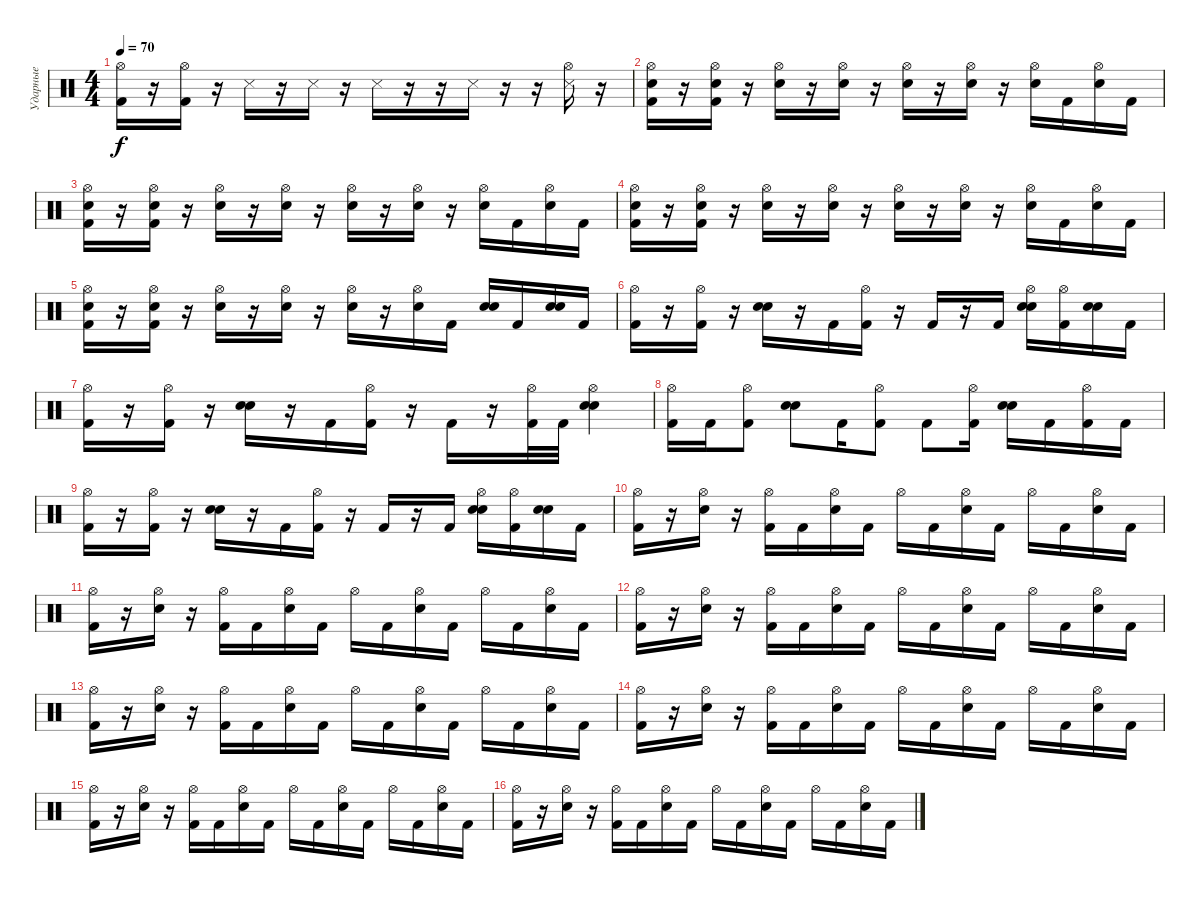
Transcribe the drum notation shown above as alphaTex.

\track ("Ударные" "Ударные") {instrument percussion}
\staff {score}
\articulation defaults
\ts (4 4)
\tempo 70
\clef neutral
\ks c
("Hi-Hat (open)" "Kick (hit) 2").16{dy f} r.16 ("Hi-Hat (open)" "Kick (hit) 2").16 r.16 "Snare (side stick) 3".16 r.16 "Snare (side stick) 3".16 r.16 "Snare (side stick) 3".16 r.16 r.16 "Snare (side stick) 3".16 r.16 r.16 ("Snare (side stick) 3" "Hi-Hat (open)").16 r.16 |
("Hi-Hat (open)" "Electric Snare (hit)" "Kick (hit) 2").16 r.16 ("Hi-Hat (open)" "Electric Snare (hit)" "Kick (hit) 2").16 r.16 ("Hi-Hat (open)" "Electric Snare (hit)").16 r.16 ("Hi-Hat (open)" "Electric Snare (hit)").16 r.16 ("Hi-Hat (open)" "Electric Snare (hit)").16 r.16 ("Hi-Hat (open)" "Electric Snare (hit)").16 r.16 ("Hi-Hat (open)" "Electric Snare (hit)").16 "Kick (hit) 2".16 ("Hi-Hat (open)" "Electric Snare (hit)").16 "Kick (hit) 2".16 |
("Hi-Hat (open)" "Electric Snare (hit)" "Kick (hit) 2").16 r.16 ("Hi-Hat (open)" "Electric Snare (hit)" "Kick (hit) 2").16 r.16 ("Hi-Hat (open)" "Electric Snare (hit)").16 r.16 ("Hi-Hat (open)" "Electric Snare (hit)").16 r.16 ("Hi-Hat (open)" "Electric Snare (hit)").16 r.16 ("Hi-Hat (open)" "Electric Snare (hit)").16 r.16 ("Hi-Hat (open)" "Electric Snare (hit)").16 "Kick (hit) 2".16 ("Hi-Hat (open)" "Electric Snare (hit)").16 "Kick (hit) 2".16 |
("Hi-Hat (open)" "Electric Snare (hit)" "Kick (hit) 2").16 r.16 ("Hi-Hat (open)" "Electric Snare (hit)" "Kick (hit) 2").16 r.16 ("Hi-Hat (open)" "Electric Snare (hit)").16 r.16 ("Hi-Hat (open)" "Electric Snare (hit)").16 r.16 ("Hi-Hat (open)" "Electric Snare (hit)").16 r.16 ("Hi-Hat (open)" "Electric Snare (hit)").16 r.16 ("Hi-Hat (open)" "Electric Snare (hit)").16 "Kick (hit) 2".16 ("Hi-Hat (open)" "Electric Snare (hit)").16 "Kick (hit) 2".16 |
("Hi-Hat (open)" "Electric Snare (hit)" "Kick (hit) 2").16 r.16 ("Hi-Hat (open)" "Electric Snare (hit)" "Kick (hit) 2").16 r.16 ("Hi-Hat (open)" "Electric Snare (hit)").16 r.16 ("Hi-Hat (open)" "Electric Snare (hit)").16 r.16 ("Hi-Hat (open)" "Electric Snare (hit)").16 r.16 ("Hi-Hat (open)" "Electric Snare (hit)").16 "Kick (hit) 2".16 ("Snare (hit) 2" "Electric Snare (hit)").16 "Kick (hit) 2".16 ("Snare (hit) 2" "Electric Snare (hit)").16 "Kick (hit) 2".16 |
("Hi-Hat (open)" "Kick (hit) 2").16 r.16 ("Hi-Hat (open)" "Kick (hit) 2").16 r.16 ("Snare (hit) 2" "Electric Snare (hit)").16 r.16 "Kick (hit) 2".16 ("Kick (hit) 2" "Hi-Hat (open)").16 r.16 "Kick (hit) 2".16 r.16 "Kick (hit) 2".16 ("Snare (hit) 2" "Electric Snare (hit)" "Hi-Hat (open)").16 ("Kick (hit) 2" "Hi-Hat (open)").16 ("Snare (hit) 2" "Electric Snare (hit)").16 "Kick (hit) 2".16 |
("Hi-Hat (open)" "Kick (hit) 2").16 r.16 ("Hi-Hat (open)" "Kick (hit) 2").16 r.16 ("Snare (hit) 2" "Electric Snare (hit)").16 r.16 "Kick (hit) 2".16 ("Kick (hit) 2" "Hi-Hat (open)").16 r.16 "Kick (hit) 2".16 r.16 ("Kick (hit) 2" "Hi-Hat (open)").32 "Kick (hit) 2".32 ("Electric Snare (hit)" "Snare (hit) 2" "Hi-Hat (open)").4 |
("Hi-Hat (open)" "Kick (hit) 2").16 "Kick (hit) 2".16 ("Hi-Hat (open)" "Kick (hit) 2").8 ("Snare (hit) 2" "Electric Snare (hit)").8 "Kick (hit) 2".16 ("Hi-Hat (open)" "Kick (hit) 2").8 "Kick (hit) 2".8 ("Hi-Hat (open)" "Kick (hit) 2").16 ("Snare (hit) 2" "Electric Snare (hit)").16 "Kick (hit) 2".16 ("Hi-Hat (open)" "Kick (hit) 2").16 "Kick (hit) 2".16 |
("Hi-Hat (open)" "Kick (hit) 2").16 r.16 ("Hi-Hat (open)" "Kick (hit) 2").16 r.16 ("Snare (hit) 2" "Electric Snare (hit)").16 r.16 "Kick (hit) 2".16 ("Kick (hit) 2" "Hi-Hat (open)").16 r.16 "Kick (hit) 2".16 r.16 "Kick (hit) 2".16 ("Snare (hit) 2" "Electric Snare (hit)" "Hi-Hat (open)").16 ("Kick (hit) 2" "Hi-Hat (open)").16 ("Snare (hit) 2" "Electric Snare (hit)").16 "Kick (hit) 2".16 |
("Hi-Hat (open)" "Kick (hit) 2").16 r.16 ("Hi-Hat (open)" "Electric Snare (hit)").16 r.16 ("Hi-Hat (open)" "Kick (hit) 2").16 "Kick (hit) 2".16 ("Hi-Hat (open)" "Electric Snare (hit)").16 "Kick (hit) 2".16 "Hi-Hat (open)".16 "Kick (hit) 2".16 ("Hi-Hat (open)" "Electric Snare (hit)").16 "Kick (hit) 2".16 "Hi-Hat (open)".16 "Kick (hit) 2".16 ("Hi-Hat (open)" "Electric Snare (hit)").16 "Kick (hit) 2".16 |
("Hi-Hat (open)" "Kick (hit) 2").16 r.16 ("Hi-Hat (open)" "Electric Snare (hit)").16 r.16 ("Hi-Hat (open)" "Kick (hit) 2").16 "Kick (hit) 2".16 ("Hi-Hat (open)" "Electric Snare (hit)").16 "Kick (hit) 2".16 "Hi-Hat (open)".16 "Kick (hit) 2".16 ("Hi-Hat (open)" "Electric Snare (hit)").16 "Kick (hit) 2".16 "Hi-Hat (open)".16 "Kick (hit) 2".16 ("Hi-Hat (open)" "Electric Snare (hit)").16 "Kick (hit) 2".16 |
("Hi-Hat (open)" "Kick (hit) 2").16 r.16 ("Hi-Hat (open)" "Electric Snare (hit)").16 r.16 ("Hi-Hat (open)" "Kick (hit) 2").16 "Kick (hit) 2".16 ("Hi-Hat (open)" "Electric Snare (hit)").16 "Kick (hit) 2".16 "Hi-Hat (open)".16 "Kick (hit) 2".16 ("Hi-Hat (open)" "Electric Snare (hit)").16 "Kick (hit) 2".16 "Hi-Hat (open)".16 "Kick (hit) 2".16 ("Hi-Hat (open)" "Electric Snare (hit)").16 "Kick (hit) 2".16 |
("Hi-Hat (open)" "Kick (hit) 2").16 r.16 ("Hi-Hat (open)" "Electric Snare (hit)").16 r.16 ("Hi-Hat (open)" "Kick (hit) 2").16 "Kick (hit) 2".16 ("Hi-Hat (open)" "Electric Snare (hit)").16 "Kick (hit) 2".16 "Hi-Hat (open)".16 "Kick (hit) 2".16 ("Hi-Hat (open)" "Electric Snare (hit)").16 "Kick (hit) 2".16 "Hi-Hat (open)".16 "Kick (hit) 2".16 ("Hi-Hat (open)" "Electric Snare (hit)").16 "Kick (hit) 2".16 |
("Hi-Hat (open)" "Kick (hit) 2").16 r.16 ("Hi-Hat (open)" "Electric Snare (hit)").16 r.16 ("Hi-Hat (open)" "Kick (hit) 2").16 "Kick (hit) 2".16 ("Hi-Hat (open)" "Electric Snare (hit)").16 "Kick (hit) 2".16 "Hi-Hat (open)".16 "Kick (hit) 2".16 ("Hi-Hat (open)" "Electric Snare (hit)").16 "Kick (hit) 2".16 "Hi-Hat (open)".16 "Kick (hit) 2".16 ("Hi-Hat (open)" "Electric Snare (hit)").16 "Kick (hit) 2".16 |
("Hi-Hat (open)" "Kick (hit) 2").16 r.16 ("Hi-Hat (open)" "Electric Snare (hit)").16 r.16 ("Hi-Hat (open)" "Kick (hit) 2").16 "Kick (hit) 2".16 ("Hi-Hat (open)" "Electric Snare (hit)").16 "Kick (hit) 2".16 "Hi-Hat (open)".16 "Kick (hit) 2".16 ("Hi-Hat (open)" "Electric Snare (hit)").16 "Kick (hit) 2".16 "Hi-Hat (open)".16 "Kick (hit) 2".16 ("Hi-Hat (open)" "Electric Snare (hit)").16 "Kick (hit) 2".16 |
("Hi-Hat (open)" "Kick (hit) 2").16 r.16 ("Hi-Hat (open)" "Electric Snare (hit)").16 r.16 ("Hi-Hat (open)" "Kick (hit) 2").16 "Kick (hit) 2".16 ("Hi-Hat (open)" "Electric Snare (hit)").16 "Kick (hit) 2".16 "Hi-Hat (open)".16 "Kick (hit) 2".16 ("Hi-Hat (open)" "Electric Snare (hit)").16 "Kick (hit) 2".16 "Hi-Hat (open)".16 "Kick (hit) 2".16 ("Hi-Hat (open)" "Electric Snare (hit)").16 "Kick (hit) 2".16
